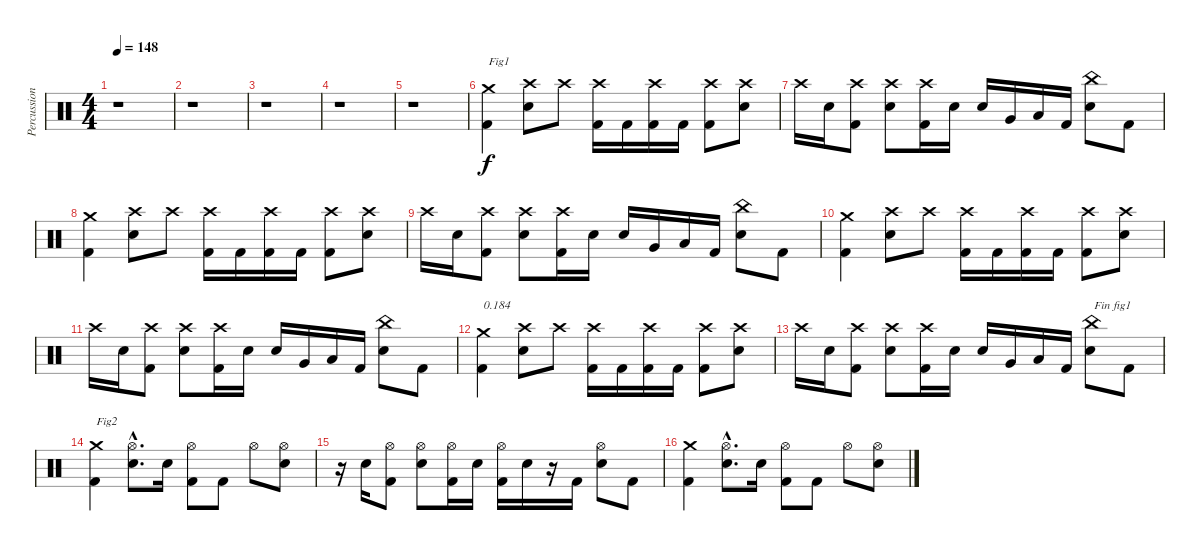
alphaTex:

\track ("Percussions" "Percussion") {instrument percussion}
\staff {score}
\articulation defaults
\ts (4 4)
\tempo 148
\clef neutral
\ks c
r.1{dy f} |
r.1 |
r.1 |
r.1 |
r.1 |
("Kick (hit) 2" "Crash medium (hit)").4{txt "Fig1"} ("Electric Snare (hit)" "Crash high (hit)").8 "Crash high (hit)".8 ("Kick (hit) 2" "Crash high (hit)").16 "Kick (hit) 2".16 ("Kick (hit) 2" "Crash high (hit)").16 "Kick (hit) 2".16 ("Kick (hit) 2" "Crash high (hit)").8 ("Electric Snare (hit)" "Crash high (hit)").8 |
"Crash high (hit)".16 "Electric Snare (hit)".16 ("Kick (hit) 2" "Crash high (hit)").8 ("Electric Snare (hit)" "Crash high (hit)").8 ("Kick (hit) 2" "Crash high (hit)").16 "Electric Snare (hit)".16 "Electric Snare (hit)".16 "Very Low Tom (hit)".16 "Low Floor Tom (hit)".16 "Kick (hit) 2".16 ("Electric Snare (hit)" "China (hit)").8 "Kick (hit) 2".8 |
("Kick (hit) 2" "Crash medium (hit)").4 ("Electric Snare (hit)" "Crash high (hit)").8 "Crash high (hit)".8 ("Kick (hit) 2" "Crash high (hit)").16 "Kick (hit) 2".16 ("Kick (hit) 2" "Crash high (hit)").16 "Kick (hit) 2".16 ("Kick (hit) 2" "Crash high (hit)").8 ("Electric Snare (hit)" "Crash high (hit)").8 |
"Crash high (hit)".16 "Electric Snare (hit)".16 ("Kick (hit) 2" "Crash high (hit)").8 ("Electric Snare (hit)" "Crash high (hit)").8 ("Kick (hit) 2" "Crash high (hit)").16 "Electric Snare (hit)".16 "Electric Snare (hit)".16 "Very Low Tom (hit)".16 "Low Floor Tom (hit)".16 "Kick (hit) 2".16 ("Electric Snare (hit)" "China (hit)").8 "Kick (hit) 2".8 |
("Kick (hit) 2" "Crash medium (hit)").4 ("Electric Snare (hit)" "Crash high (hit)").8 "Crash high (hit)".8 ("Kick (hit) 2" "Crash high (hit)").16 "Kick (hit) 2".16 ("Kick (hit) 2" "Crash high (hit)").16 "Kick (hit) 2".16 ("Kick (hit) 2" "Crash high (hit)").8 ("Electric Snare (hit)" "Crash high (hit)").8 |
"Crash high (hit)".16 "Electric Snare (hit)".16 ("Kick (hit) 2" "Crash high (hit)").8 ("Electric Snare (hit)" "Crash high (hit)").8 ("Kick (hit) 2" "Crash high (hit)").16 "Electric Snare (hit)".16 "Electric Snare (hit)".16 "Very Low Tom (hit)".16 "Low Floor Tom (hit)".16 "Kick (hit) 2".16 ("Electric Snare (hit)" "China (hit)").8 "Kick (hit) 2".8 |
("Kick (hit) 2" "Crash medium (hit)").4{txt "0.184"} ("Electric Snare (hit)" "Crash high (hit)").8 "Crash high (hit)".8 ("Kick (hit) 2" "Crash high (hit)").16 "Kick (hit) 2".16 ("Kick (hit) 2" "Crash high (hit)").16 "Kick (hit) 2".16 ("Kick (hit) 2" "Crash high (hit)").8 ("Electric Snare (hit)" "Crash high (hit)").8 |
"Crash high (hit)".16 "Electric Snare (hit)".16 ("Kick (hit) 2" "Crash high (hit)").8 ("Electric Snare (hit)" "Crash high (hit)").8 ("Kick (hit) 2" "Crash high (hit)").16 "Electric Snare (hit)".16 "Electric Snare (hit)".16 "Very Low Tom (hit)".16 "Low Floor Tom (hit)".16 "Kick (hit) 2".16 ("Electric Snare (hit)" "China (hit)").8{txt "Fin fig1"} "Kick (hit) 2".8 |
("Kick (hit) 2" "Crash medium (hit)").4{txt "Fig2"} ("Electric Snare (hit)"{hac} "Hi-Hat (open)"{hac}).8{d} "Electric Snare (hit)".16 ("Kick (hit) 2" "Hi-Hat (open)").8 "Kick (hit) 2".8 "Hi-Hat (open)".8 ("Electric Snare (hit)" "Hi-Hat (open)").8 |
r.16 "Electric Snare (hit)".16 ("Kick (hit) 2" "Hi-Hat (open)").8 ("Electric Snare (hit)" "Hi-Hat (open)").8 ("Kick (hit) 2" "Hi-Hat (open)").16 "Electric Snare (hit)".16 ("Kick (hit) 2" "Hi-Hat (open)").16 "Electric Snare (hit)".16 r.16 "Kick (hit) 2".16 ("Electric Snare (hit)" "Hi-Hat (open)").8 "Kick (hit) 2".8 |
("Kick (hit) 2" "Crash medium (hit)").4 ("Electric Snare (hit)"{hac} "Hi-Hat (open)"{hac}).8{d} "Electric Snare (hit)".16 ("Kick (hit) 2" "Hi-Hat (open)").8 "Kick (hit) 2".8 "Hi-Hat (open)".8 ("Electric Snare (hit)" "Hi-Hat (open)").8
